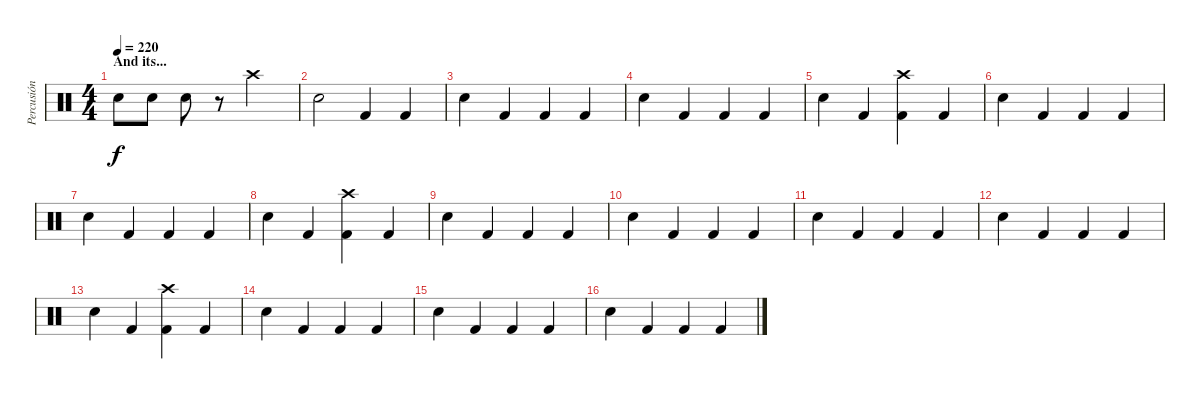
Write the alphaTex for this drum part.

\track ("Percusión" "Percusión") {instrument percussion}
\staff {score}
\articulation defaults
\ts (4 4)
\section ("" "And its...")
\tempo 220
\clef neutral
\ks c "Electric Snare (hit)".8{dy f} "Electric Snare (hit)".8 "Electric Snare (hit)".8
r.8 "Crash high (hit)".2 |
"Electric Snare (hit)".2 "Kick (hit) 2".4 "Kick (hit) 2".4 |
"Electric Snare (hit)".4 "Kick (hit) 2".4 "Kick (hit) 2".4 "Kick (hit) 2".4 |
"Electric Snare (hit)".4 "Kick (hit) 2".4 "Kick (hit) 2".4 "Kick (hit) 2".4 |
"Electric Snare (hit)".4 "Kick (hit) 2".4 ("Crash high (hit)" "Kick (hit) 2").4 "Kick (hit) 2".4 |
"Electric Snare (hit)".4 "Kick (hit) 2".4 "Kick (hit) 2".4 "Kick (hit) 2".4 |
"Electric Snare (hit)".4 "Kick (hit) 2".4 "Kick (hit) 2".4 "Kick (hit) 2".4 |
"Electric Snare (hit)".4 "Kick (hit) 2".4 ("Crash high (hit)" "Kick (hit) 2").4 "Kick (hit) 2".4 |
"Electric Snare (hit)".4 "Kick (hit) 2".4 "Kick (hit) 2".4 "Kick (hit) 2".4 |
"Electric Snare (hit)".4 "Kick (hit) 2".4 "Kick (hit) 2".4 "Kick (hit) 2".4 |
"Electric Snare (hit)".4 "Kick (hit) 2".4 "Kick (hit) 2".4 "Kick (hit) 2".4 |
"Electric Snare (hit)".4 "Kick (hit) 2".4 "Kick (hit) 2".4 "Kick (hit) 2".4 |
"Electric Snare (hit)".4 "Kick (hit) 2".4 ("Crash high (hit)" "Kick (hit) 2").4 "Kick (hit) 2".4 |
"Electric Snare (hit)".4 "Kick (hit) 2".4 "Kick (hit) 2".4 "Kick (hit) 2".4 |
"Electric Snare (hit)".4 "Kick (hit) 2".4 "Kick (hit) 2".4 "Kick (hit) 2".4 |
"Electric Snare (hit)".4 "Kick (hit) 2".4 "Kick (hit) 2".4 "Kick (hit) 2".4
